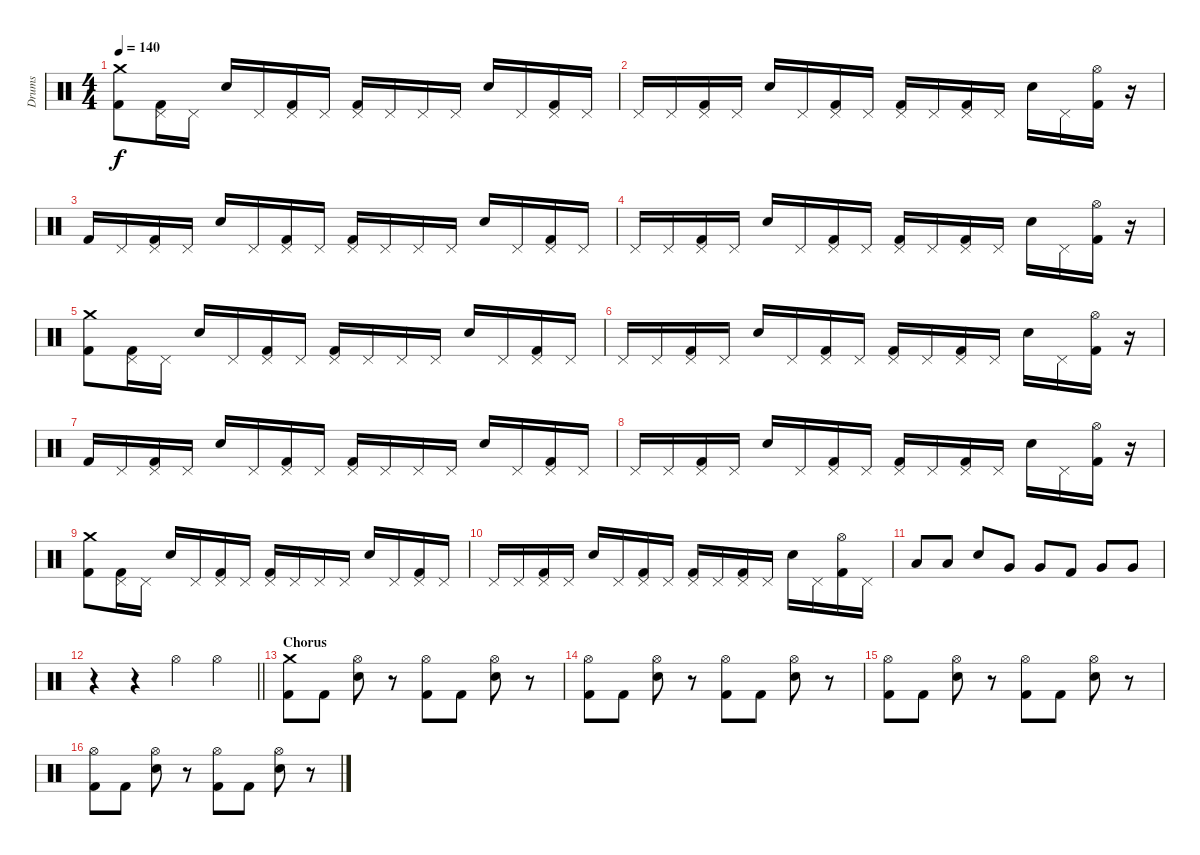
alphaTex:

\track ("Drums" "Drums") {instrument percussion}
\staff {score}
\articulation defaults
\ts (4 4)
\tempo 140
\clef neutral
\ks c
("Crash medium (hit)" "Kick (hit) 2").8{dy f} ("Pedal Hi-Hat (hit)" "Kick (hit) 2").16 "Pedal Hi-Hat (hit)".16 "Electric Snare (hit)".16 "Pedal Hi-Hat (hit)".16 ("Pedal Hi-Hat (hit)" "Kick (hit) 2").16 "Pedal Hi-Hat (hit)".16 ("Pedal Hi-Hat (hit)" "Kick (hit) 2").16 "Pedal Hi-Hat (hit)".16 "Pedal Hi-Hat (hit)".16 "Pedal Hi-Hat (hit)".16 "Electric Snare (hit)".16 "Pedal Hi-Hat (hit)".16 ("Pedal Hi-Hat (hit)" "Kick (hit) 2").16 "Pedal Hi-Hat (hit)".16 |
"Pedal Hi-Hat (hit)".16 "Pedal Hi-Hat (hit)".16 ("Pedal Hi-Hat (hit)" "Kick (hit) 2").16 "Pedal Hi-Hat (hit)".16 "Electric Snare (hit)".16 "Pedal Hi-Hat (hit)".16 ("Pedal Hi-Hat (hit)" "Kick (hit) 2").16 "Pedal Hi-Hat (hit)".16 ("Pedal Hi-Hat (hit)" "Kick (hit) 2").16 "Pedal Hi-Hat (hit)".16 ("Pedal Hi-Hat (hit)" "Kick (hit) 2").16 "Pedal Hi-Hat (hit)".16 "Electric Snare (hit)".16 "Pedal Hi-Hat (hit)".16 ("Hi-Hat (open)" "Kick (hit) 2").16 r.16 |
"Kick (hit) 2".16 "Pedal Hi-Hat (hit)".16 ("Pedal Hi-Hat (hit)" "Kick (hit) 2").16 "Pedal Hi-Hat (hit)".16 "Electric Snare (hit)".16 "Pedal Hi-Hat (hit)".16 ("Pedal Hi-Hat (hit)" "Kick (hit) 2").16 "Pedal Hi-Hat (hit)".16 ("Pedal Hi-Hat (hit)" "Kick (hit) 2").16 "Pedal Hi-Hat (hit)".16 "Pedal Hi-Hat (hit)".16 "Pedal Hi-Hat (hit)".16 "Electric Snare (hit)".16 "Pedal Hi-Hat (hit)".16 ("Pedal Hi-Hat (hit)" "Kick (hit) 2").16 "Pedal Hi-Hat (hit)".16 |
"Pedal Hi-Hat (hit)".16 "Pedal Hi-Hat (hit)".16 ("Pedal Hi-Hat (hit)" "Kick (hit) 2").16 "Pedal Hi-Hat (hit)".16 "Electric Snare (hit)".16 "Pedal Hi-Hat (hit)".16 ("Pedal Hi-Hat (hit)" "Kick (hit) 2").16 "Pedal Hi-Hat (hit)".16 ("Pedal Hi-Hat (hit)" "Kick (hit) 2").16 "Pedal Hi-Hat (hit)".16 ("Pedal Hi-Hat (hit)" "Kick (hit) 2").16 "Pedal Hi-Hat (hit)".16 "Electric Snare (hit)".16 "Pedal Hi-Hat (hit)".16 ("Hi-Hat (open)" "Kick (hit) 2").16 r.16 |
("Crash medium (hit)" "Kick (hit) 2").8 ("Pedal Hi-Hat (hit)" "Kick (hit) 2").16 "Pedal Hi-Hat (hit)".16 "Electric Snare (hit)".16 "Pedal Hi-Hat (hit)".16 ("Pedal Hi-Hat (hit)" "Kick (hit) 2").16 "Pedal Hi-Hat (hit)".16 ("Pedal Hi-Hat (hit)" "Kick (hit) 2").16 "Pedal Hi-Hat (hit)".16 "Pedal Hi-Hat (hit)".16 "Pedal Hi-Hat (hit)".16 "Electric Snare (hit)".16 "Pedal Hi-Hat (hit)".16 ("Pedal Hi-Hat (hit)" "Kick (hit) 2").16 "Pedal Hi-Hat (hit)".16 |
"Pedal Hi-Hat (hit)".16 "Pedal Hi-Hat (hit)".16 ("Pedal Hi-Hat (hit)" "Kick (hit) 2").16 "Pedal Hi-Hat (hit)".16 "Electric Snare (hit)".16 "Pedal Hi-Hat (hit)".16 ("Pedal Hi-Hat (hit)" "Kick (hit) 2").16 "Pedal Hi-Hat (hit)".16 ("Pedal Hi-Hat (hit)" "Kick (hit) 2").16 "Pedal Hi-Hat (hit)".16 ("Pedal Hi-Hat (hit)" "Kick (hit) 2").16 "Pedal Hi-Hat (hit)".16 "Electric Snare (hit)".16 "Pedal Hi-Hat (hit)".16 ("Hi-Hat (open)" "Kick (hit) 2").16 r.16 |
"Kick (hit) 2".16 "Pedal Hi-Hat (hit)".16 ("Pedal Hi-Hat (hit)" "Kick (hit) 2").16 "Pedal Hi-Hat (hit)".16 "Electric Snare (hit)".16 "Pedal Hi-Hat (hit)".16 ("Pedal Hi-Hat (hit)" "Kick (hit) 2").16 "Pedal Hi-Hat (hit)".16 ("Pedal Hi-Hat (hit)" "Kick (hit) 2").16 "Pedal Hi-Hat (hit)".16 "Pedal Hi-Hat (hit)".16 "Pedal Hi-Hat (hit)".16 "Electric Snare (hit)".16 "Pedal Hi-Hat (hit)".16 ("Pedal Hi-Hat (hit)" "Kick (hit) 2").16 "Pedal Hi-Hat (hit)".16 |
"Pedal Hi-Hat (hit)".16 "Pedal Hi-Hat (hit)".16 ("Pedal Hi-Hat (hit)" "Kick (hit) 2").16 "Pedal Hi-Hat (hit)".16 "Electric Snare (hit)".16 "Pedal Hi-Hat (hit)".16 ("Pedal Hi-Hat (hit)" "Kick (hit) 2").16 "Pedal Hi-Hat (hit)".16 ("Pedal Hi-Hat (hit)" "Kick (hit) 2").16 "Pedal Hi-Hat (hit)".16 ("Pedal Hi-Hat (hit)" "Kick (hit) 2").16 "Pedal Hi-Hat (hit)".16 "Electric Snare (hit)".16 "Pedal Hi-Hat (hit)".16 ("Hi-Hat (open)" "Kick (hit) 2").16 r.16 |
("Crash medium (hit)" "Kick (hit) 2").8 ("Pedal Hi-Hat (hit)" "Kick (hit) 2").16 "Pedal Hi-Hat (hit)".16 "Electric Snare (hit)".16 "Pedal Hi-Hat (hit)".16 ("Pedal Hi-Hat (hit)" "Kick (hit) 2").16 "Pedal Hi-Hat (hit)".16 ("Pedal Hi-Hat (hit)" "Kick (hit) 2").16 "Pedal Hi-Hat (hit)".16 "Pedal Hi-Hat (hit)".16 "Pedal Hi-Hat (hit)".16 "Electric Snare (hit)".16 "Pedal Hi-Hat (hit)".16 ("Pedal Hi-Hat (hit)" "Kick (hit) 2").16 "Pedal Hi-Hat (hit)".16 |
"Pedal Hi-Hat (hit)".16 "Pedal Hi-Hat (hit)".16 ("Pedal Hi-Hat (hit)" "Kick (hit) 2").16 "Pedal Hi-Hat (hit)".16 "Electric Snare (hit)".16 "Pedal Hi-Hat (hit)".16 ("Pedal Hi-Hat (hit)" "Kick (hit) 2").16 "Pedal Hi-Hat (hit)".16 ("Pedal Hi-Hat (hit)" "Kick (hit) 2").16 "Pedal Hi-Hat (hit)".16 ("Pedal Hi-Hat (hit)" "Kick (hit) 2").16 "Pedal Hi-Hat (hit)".16 "Electric Snare (hit)".16 "Pedal Hi-Hat (hit)".16 ("Hi-Hat (open)" "Kick (hit) 2").16 "Pedal Hi-Hat (hit)".16 |
"Low Tom (hit)".8 "Low Tom (hit)".8 "Electric Snare (hit)".8 "Very Low Tom (hit)".8 "Very Low Tom (hit)".8 "Kick (hit) 2".8 "Very Low Tom (hit)".8 "Very Low Tom (hit)".8 |
\barLineRight lightlight
r.4 r.4 "Hi-Hat (open)".4 "Hi-Hat (open)".4 |
\section ("" "Chorus")
("Crash medium (hit)" "Kick (hit) 2").8 "Kick (hit) 2".8 ("Hi-Hat (open)" "Electric Snare (hit)").8 r.8 ("Hi-Hat (open)" "Kick (hit) 2").8 "Kick (hit) 2".8 ("Hi-Hat (open)" "Electric Snare (hit)").8 r.8 |
("Hi-Hat (open)" "Kick (hit) 2").8 "Kick (hit) 2".8 ("Hi-Hat (open)" "Electric Snare (hit)").8 r.8 ("Hi-Hat (open)" "Kick (hit) 2").8 "Kick (hit) 2".8 ("Hi-Hat (open)" "Electric Snare (hit)").8 r.8 |
("Hi-Hat (open)" "Kick (hit) 2").8 "Kick (hit) 2".8 ("Hi-Hat (open)" "Electric Snare (hit)").8 r.8 ("Hi-Hat (open)" "Kick (hit) 2").8 "Kick (hit) 2".8 ("Hi-Hat (open)" "Electric Snare (hit)").8 r.8 |
("Hi-Hat (open)" "Kick (hit) 2").8 "Kick (hit) 2".8 ("Hi-Hat (open)" "Electric Snare (hit)").8 r.8 ("Hi-Hat (open)" "Kick (hit) 2").8 "Kick (hit) 2".8 ("Hi-Hat (open)" "Electric Snare (hit)").8 r.8
